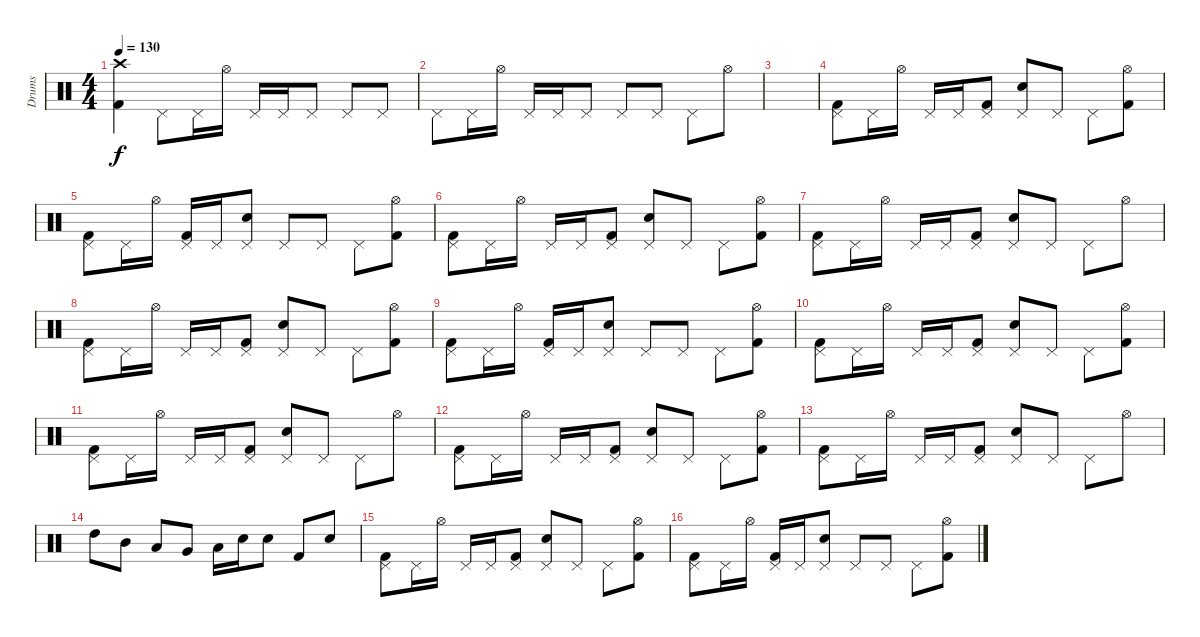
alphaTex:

\track ("Drums" "Drums") {instrument percussion}
\staff {score}
\articulation defaults
\ts (4 4)
\tempo 130
\clef neutral
\ks c
("Kick (hit) 2" "Crash high (hit)").4{dy f} "Pedal Hi-Hat (hit)".8 "Pedal Hi-Hat (hit)".16 "Hi-Hat (open)".16 "Pedal Hi-Hat (hit)".16 "Pedal Hi-Hat (hit)".16 "Pedal Hi-Hat (hit)".8 "Pedal Hi-Hat (hit)".8 "Pedal Hi-Hat (hit)".8 |
"Pedal Hi-Hat (hit)".8 "Pedal Hi-Hat (hit)".16 "Hi-Hat (open)".16 "Pedal Hi-Hat (hit)".16 "Pedal Hi-Hat (hit)".16 "Pedal Hi-Hat (hit)".8 "Pedal Hi-Hat (hit)".8 "Pedal Hi-Hat (hit)".8 "Pedal Hi-Hat (hit)".8 "Hi-Hat (open)".8 |
|
("Pedal Hi-Hat (hit)" "Kick (hit) 2").8 "Pedal Hi-Hat (hit)".16 "Hi-Hat (open)".16 "Pedal Hi-Hat (hit)".16 "Pedal Hi-Hat (hit)".16 ("Pedal Hi-Hat (hit)" "Kick (hit) 2").8 ("Pedal Hi-Hat (hit)" "Electric Snare (hit)").8 "Pedal Hi-Hat (hit)".8 "Pedal Hi-Hat (hit)".8 ("Hi-Hat (open)" "Kick (hit) 2").8 |
("Pedal Hi-Hat (hit)" "Kick (hit) 2").8 "Pedal Hi-Hat (hit)".16 "Hi-Hat (open)".16 ("Pedal Hi-Hat (hit)" "Kick (hit) 2").16 "Pedal Hi-Hat (hit)".16 ("Pedal Hi-Hat (hit)" "Electric Snare (hit)").8 "Pedal Hi-Hat (hit)".8 "Pedal Hi-Hat (hit)".8 "Pedal Hi-Hat (hit)".8 ("Hi-Hat (open)" "Kick (hit) 2").8 |
("Pedal Hi-Hat (hit)" "Kick (hit) 2").8 "Pedal Hi-Hat (hit)".16 "Hi-Hat (open)".16 "Pedal Hi-Hat (hit)".16 "Pedal Hi-Hat (hit)".16 ("Pedal Hi-Hat (hit)" "Kick (hit) 2").8 ("Pedal Hi-Hat (hit)" "Electric Snare (hit)").8 "Pedal Hi-Hat (hit)".8 "Pedal Hi-Hat (hit)".8 ("Hi-Hat (open)" "Kick (hit) 2").8 |
("Pedal Hi-Hat (hit)" "Kick (hit) 2").8 "Pedal Hi-Hat (hit)".16 "Hi-Hat (open)".16 "Pedal Hi-Hat (hit)".16 "Pedal Hi-Hat (hit)".16 ("Pedal Hi-Hat (hit)" "Kick (hit) 2").8 ("Pedal Hi-Hat (hit)" "Electric Snare (hit)").8 "Pedal Hi-Hat (hit)".8 "Pedal Hi-Hat (hit)".8 "Hi-Hat (open)".8 |
("Pedal Hi-Hat (hit)" "Kick (hit) 2").8 "Pedal Hi-Hat (hit)".16 "Hi-Hat (open)".16 "Pedal Hi-Hat (hit)".16 "Pedal Hi-Hat (hit)".16 ("Pedal Hi-Hat (hit)" "Kick (hit) 2").8 ("Pedal Hi-Hat (hit)" "Electric Snare (hit)").8 "Pedal Hi-Hat (hit)".8 "Pedal Hi-Hat (hit)".8 ("Hi-Hat (open)" "Kick (hit) 2").8 |
("Pedal Hi-Hat (hit)" "Kick (hit) 2").8 "Pedal Hi-Hat (hit)".16 "Hi-Hat (open)".16 ("Pedal Hi-Hat (hit)" "Kick (hit) 2").16 "Pedal Hi-Hat (hit)".16 ("Pedal Hi-Hat (hit)" "Electric Snare (hit)").8 "Pedal Hi-Hat (hit)".8 "Pedal Hi-Hat (hit)".8 "Pedal Hi-Hat (hit)".8 ("Hi-Hat (open)" "Kick (hit) 2").8 |
("Pedal Hi-Hat (hit)" "Kick (hit) 2").8 "Pedal Hi-Hat (hit)".16 "Hi-Hat (open)".16 "Pedal Hi-Hat (hit)".16 "Pedal Hi-Hat (hit)".16 ("Pedal Hi-Hat (hit)" "Kick (hit) 2").8 ("Pedal Hi-Hat (hit)" "Electric Snare (hit)").8 "Pedal Hi-Hat (hit)".8 "Pedal Hi-Hat (hit)".8 ("Hi-Hat (open)" "Kick (hit) 2").8 |
("Pedal Hi-Hat (hit)" "Kick (hit) 2").8 "Pedal Hi-Hat (hit)".16 "Hi-Hat (open)".16 "Pedal Hi-Hat (hit)".16 "Pedal Hi-Hat (hit)".16 ("Pedal Hi-Hat (hit)" "Kick (hit) 2").8 ("Pedal Hi-Hat (hit)" "Electric Snare (hit)").8 "Pedal Hi-Hat (hit)".8 "Pedal Hi-Hat (hit)".8 "Hi-Hat (open)".8 |
("Pedal Hi-Hat (hit)" "Kick (hit) 2").8 "Pedal Hi-Hat (hit)".16 "Hi-Hat (open)".16 "Pedal Hi-Hat (hit)".16 "Pedal Hi-Hat (hit)".16 ("Pedal Hi-Hat (hit)" "Kick (hit) 2").8 ("Pedal Hi-Hat (hit)" "Electric Snare (hit)").8 "Pedal Hi-Hat (hit)".8 "Pedal Hi-Hat (hit)".8 ("Hi-Hat (open)" "Kick (hit) 2").8 |
("Pedal Hi-Hat (hit)" "Kick (hit) 2").8 "Pedal Hi-Hat (hit)".16 "Hi-Hat (open)".16 "Pedal Hi-Hat (hit)".16 "Pedal Hi-Hat (hit)".16 ("Pedal Hi-Hat (hit)" "Kick (hit) 2").8 ("Pedal Hi-Hat (hit)" "Electric Snare (hit)").8 "Pedal Hi-Hat (hit)".8 "Pedal Hi-Hat (hit)".8 "Hi-Hat (open)".8 |
"High Tom (hit)".8 "Mid Tom (hit)".8 "Low Tom (hit)".8 "Very Low Tom (hit)".8 "Low Floor Tom (hit)".16 "Electric Snare (hit)".16 "Electric Snare (hit)".8 "Kick (hit) 2".8 "Electric Snare (hit)".8 |
("Pedal Hi-Hat (hit)" "Kick (hit) 2").8 "Pedal Hi-Hat (hit)".16 "Hi-Hat (open)".16 "Pedal Hi-Hat (hit)".16 "Pedal Hi-Hat (hit)".16 ("Pedal Hi-Hat (hit)" "Kick (hit) 2").8 ("Pedal Hi-Hat (hit)" "Electric Snare (hit)").8 "Pedal Hi-Hat (hit)".8 "Pedal Hi-Hat (hit)".8 ("Hi-Hat (open)" "Kick (hit) 2").8 |
("Pedal Hi-Hat (hit)" "Kick (hit) 2").8 "Pedal Hi-Hat (hit)".16 "Hi-Hat (open)".16 ("Pedal Hi-Hat (hit)" "Kick (hit) 2").16 "Pedal Hi-Hat (hit)".16 ("Pedal Hi-Hat (hit)" "Electric Snare (hit)").8 "Pedal Hi-Hat (hit)".8 "Pedal Hi-Hat (hit)".8 "Pedal Hi-Hat (hit)".8 ("Hi-Hat (open)" "Kick (hit) 2").8
